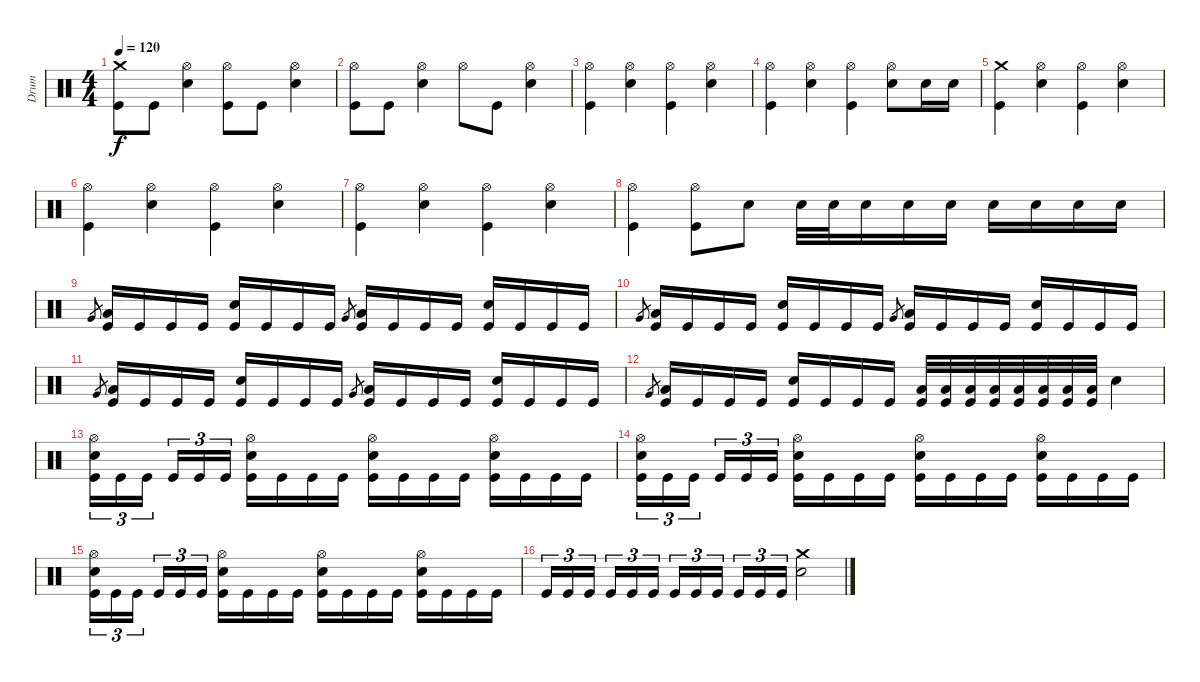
\track ("Drum" "Drum") {instrument percussion}
\staff {score}
\articulation defaults
\ts (4 4)
\tempo 120
\clef neutral
\ks c
("Kick (hit)" "Crash medium (hit)").8{dy f} "Kick (hit)".8 ("Electric Snare (hit)" "Hi-Hat (open)").4 ("Kick (hit)" "Hi-Hat (open)").8 "Kick (hit)".8 ("Electric Snare (hit)" "Hi-Hat (open)").4 |
("Kick (hit)" "Hi-Hat (open)").8 "Kick (hit)".8 ("Electric Snare (hit)" "Hi-Hat (open)").4 "Hi-Hat (open)".8 "Kick (hit)".8 ("Electric Snare (hit)" "Hi-Hat (open)").4 |
("Kick (hit)" "Hi-Hat (open)").4 ("Electric Snare (hit)" "Hi-Hat (open)").4 ("Kick (hit)" "Hi-Hat (open)").4 ("Electric Snare (hit)" "Hi-Hat (open)").4 |
("Kick (hit)" "Hi-Hat (open)").4 ("Electric Snare (hit)" "Hi-Hat (open)").4 ("Kick (hit)" "Hi-Hat (open)").4 ("Electric Snare (hit)" "Hi-Hat (open)").8 "Electric Snare (hit)".16 "Electric Snare (hit)".16 |
("Kick (hit)" "Crash medium (hit)").4 ("Electric Snare (hit)" "Hi-Hat (open)").4 ("Kick (hit)" "Hi-Hat (open)").4 ("Electric Snare (hit)" "Hi-Hat (open)").4 |
("Kick (hit)" "Hi-Hat (open)").4 ("Electric Snare (hit)" "Hi-Hat (open)").4 ("Kick (hit)" "Hi-Hat (open)").4 ("Electric Snare (hit)" "Hi-Hat (open)").4 |
("Kick (hit)" "Hi-Hat (open)").4 ("Electric Snare (hit)" "Hi-Hat (open)").4 ("Kick (hit)" "Hi-Hat (open)").4 ("Electric Snare (hit)" "Hi-Hat (open)").4 |
("Kick (hit)" "Hi-Hat (open)").4 ("Kick (hit)" "Hi-Hat (open)").8 "Electric Snare (hit)".8 "Electric Snare (hit)".32 "Electric Snare (hit)".32 "Electric Snare (hit)".16 "Electric Snare (hit)".16 "Electric Snare (hit)".16 "Electric Snare (hit)".16 "Electric Snare (hit)".16 "Electric Snare (hit)".16 "Electric Snare (hit)".16 |
"Very Low Tom (hit)".8{gr} ("Kick (hit)" "Low Tom (hit)").16 "Kick (hit)".16 "Kick (hit)".16 "Kick (hit)".16 ("Kick (hit)" "Electric Snare (hit)").16 "Kick (hit)".16 "Kick (hit)".16 "Kick (hit)".16 "Very Low Tom (hit)".8{gr} ("Kick (hit)" "Low Tom (hit)").16 "Kick (hit)".16 "Kick (hit)".16 "Kick (hit)".16 ("Kick (hit)" "Electric Snare (hit)").16 "Kick (hit)".16 "Kick (hit)".16 "Kick (hit)".16 |
"Very Low Tom (hit)".8{gr} ("Kick (hit)" "Low Tom (hit)").16 "Kick (hit)".16 "Kick (hit)".16 "Kick (hit)".16 ("Kick (hit)" "Electric Snare (hit)").16 "Kick (hit)".16 "Kick (hit)".16 "Kick (hit)".16 "Very Low Tom (hit)".8{gr} ("Kick (hit)" "Low Tom (hit)").16 "Kick (hit)".16 "Kick (hit)".16 "Kick (hit)".16 ("Kick (hit)" "Electric Snare (hit)").16 "Kick (hit)".16 "Kick (hit)".16 "Kick (hit)".16 |
"Very Low Tom (hit)".8{gr} ("Kick (hit)" "Low Tom (hit)").16 "Kick (hit)".16 "Kick (hit)".16 "Kick (hit)".16 ("Kick (hit)" "Electric Snare (hit)").16 "Kick (hit)".16 "Kick (hit)".16 "Kick (hit)".16 "Very Low Tom (hit)".8{gr} ("Kick (hit)" "Low Tom (hit)").16 "Kick (hit)".16 "Kick (hit)".16 "Kick (hit)".16 ("Kick (hit)" "Electric Snare (hit)").16 "Kick (hit)".16 "Kick (hit)".16 "Kick (hit)".16 |
"Very Low Tom (hit)".8{gr} ("Kick (hit)" "Low Tom (hit)").16 "Kick (hit)".16 "Kick (hit)".16 "Kick (hit)".16 ("Kick (hit)" "Electric Snare (hit)").16 "Kick (hit)".16 "Kick (hit)".16 "Kick (hit)".16 ("Kick (hit)" "Low Tom (hit)").32 ("Kick (hit)" "Low Tom (hit)").32 ("Kick (hit)" "Low Tom (hit)").32 ("Kick (hit)" "Low Tom (hit)").32 ("Kick (hit)" "Low Tom (hit)").32 ("Kick (hit)" "Low Tom (hit)").32 ("Kick (hit)" "Low Tom (hit)").32 ("Kick (hit)" "Low Tom (hit)").32 "Electric Snare (hit)".4 |
("Kick (hit)" "Electric Snare (hit)" "Hi-Hat (open)").16{tu (3 2)} "Kick (hit)".16{tu (3 2)} "Kick (hit)".16{tu (3 2)} "Kick (hit)".16{tu (3 2)} "Kick (hit)".16{tu (3 2)} "Kick (hit)".16{tu (3 2)} ("Kick (hit)" "Electric Snare (hit)" "Hi-Hat (open)").16 "Kick (hit)".16 "Kick (hit)".16 "Kick (hit)".16 ("Kick (hit)" "Electric Snare (hit)" "Hi-Hat (open)").16 "Kick (hit)".16 "Kick (hit)".16 "Kick (hit)".16 ("Kick (hit)" "Electric Snare (hit)" "Hi-Hat (open)").16 "Kick (hit)".16 "Kick (hit)".16 "Kick (hit)".16 |
("Kick (hit)" "Electric Snare (hit)" "Hi-Hat (open)").16{tu (3 2)} "Kick (hit)".16{tu (3 2)} "Kick (hit)".16{tu (3 2)} "Kick (hit)".16{tu (3 2)} "Kick (hit)".16{tu (3 2)} "Kick (hit)".16{tu (3 2)} ("Kick (hit)" "Electric Snare (hit)" "Hi-Hat (open)").16 "Kick (hit)".16 "Kick (hit)".16 "Kick (hit)".16 ("Kick (hit)" "Electric Snare (hit)" "Hi-Hat (open)").16 "Kick (hit)".16 "Kick (hit)".16 "Kick (hit)".16 ("Kick (hit)" "Electric Snare (hit)" "Hi-Hat (open)").16 "Kick (hit)".16 "Kick (hit)".16 "Kick (hit)".16 |
("Kick (hit)" "Electric Snare (hit)" "Hi-Hat (open)").16{tu (3 2)} "Kick (hit)".16{tu (3 2)} "Kick (hit)".16{tu (3 2)} "Kick (hit)".16{tu (3 2)} "Kick (hit)".16{tu (3 2)} "Kick (hit)".16{tu (3 2)} ("Kick (hit)" "Electric Snare (hit)" "Hi-Hat (open)").16 "Kick (hit)".16 "Kick (hit)".16 "Kick (hit)".16 ("Kick (hit)" "Electric Snare (hit)" "Hi-Hat (open)").16 "Kick (hit)".16 "Kick (hit)".16 "Kick (hit)".16 ("Kick (hit)" "Electric Snare (hit)" "Hi-Hat (open)").16 "Kick (hit)".16 "Kick (hit)".16 "Kick (hit)".16 |
"Kick (hit)".16{tu (3 2)} "Kick (hit)".16{tu (3 2)} "Kick (hit)".16{tu (3 2)} "Kick (hit)".16{tu (3 2)} "Kick (hit)".16{tu (3 2)} "Kick (hit)".16{tu (3 2)} "Kick (hit)".16{tu (3 2)} "Kick (hit)".16{tu (3 2)} "Kick (hit)".16{tu (3 2)} "Kick (hit)".16{tu (3 2)} "Kick (hit)".16{tu (3 2)} "Kick (hit)".16{tu (3 2)} ("Electric Snare (hit)" "Crash medium (hit)").2
